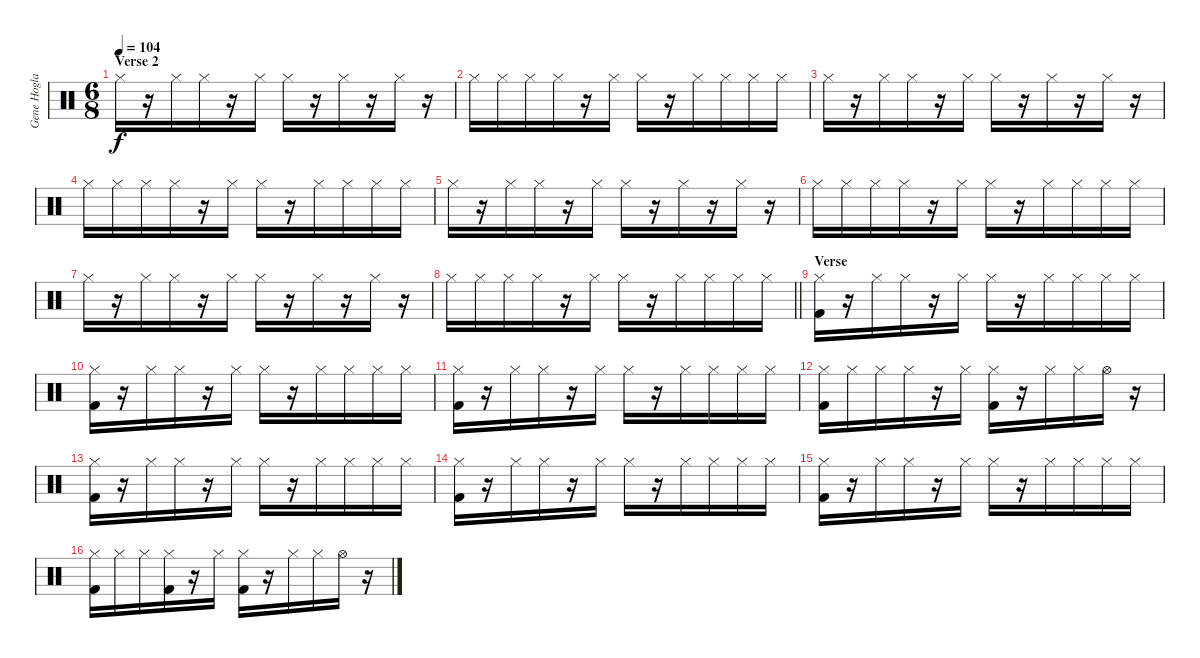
\track ("Gene Hoglan" "Gene Hogla") {instrument percussion}
\staff {score}
\articulation defaults
\ts (6 8)
\section ("" "Verse 2")
\tempo 104
\clef neutral
\ks c "Hi-Hat (closed)".16{dy f}
r.16 "Hi-Hat (closed)".16 "Hi-Hat (closed)".16 r.16 "Hi-Hat (closed)".16 "Hi-Hat (closed)".16 r.16 "Hi-Hat (closed)".16 r.16 "Hi-Hat (closed)".16 r.16 |
"Hi-Hat (closed)".16 "Hi-Hat (closed)".16 "Hi-Hat (closed)".16 "Hi-Hat (closed)".16 r.16 "Hi-Hat (closed)".16 "Hi-Hat (closed)".16 r.16 "Hi-Hat (closed)".16 "Hi-Hat (closed)".16 "Hi-Hat (closed)".16 "Hi-Hat (closed)".16 |
"Hi-Hat (closed)".16 r.16 "Hi-Hat (closed)".16 "Hi-Hat (closed)".16 r.16 "Hi-Hat (closed)".16 "Hi-Hat (closed)".16 r.16 "Hi-Hat (closed)".16 r.16 "Hi-Hat (closed)".16 r.16 |
"Hi-Hat (closed)".16 "Hi-Hat (closed)".16 "Hi-Hat (closed)".16 "Hi-Hat (closed)".16 r.16 "Hi-Hat (closed)".16 "Hi-Hat (closed)".16 r.16 "Hi-Hat (closed)".16 "Hi-Hat (closed)".16 "Hi-Hat (closed)".16 "Hi-Hat (closed)".16 |
"Hi-Hat (closed)".16 r.16 "Hi-Hat (closed)".16 "Hi-Hat (closed)".16 r.16 "Hi-Hat (closed)".16 "Hi-Hat (closed)".16 r.16 "Hi-Hat (closed)".16 r.16 "Hi-Hat (closed)".16 r.16 |
"Hi-Hat (closed)".16 "Hi-Hat (closed)".16 "Hi-Hat (closed)".16 "Hi-Hat (closed)".16 r.16 "Hi-Hat (closed)".16 "Hi-Hat (closed)".16 r.16 "Hi-Hat (closed)".16 "Hi-Hat (closed)".16 "Hi-Hat (closed)".16 "Hi-Hat (closed)".16 |
"Hi-Hat (closed)".16 r.16 "Hi-Hat (closed)".16 "Hi-Hat (closed)".16 r.16 "Hi-Hat (closed)".16 "Hi-Hat (closed)".16 r.16 "Hi-Hat (closed)".16 r.16 "Hi-Hat (closed)".16 r.16 |
\barLineRight lightlight "Hi-Hat (closed)".16 "Hi-Hat (closed)".16 "Hi-Hat (closed)".16 "Hi-Hat (closed)".16
r.16 "Hi-Hat (closed)".16 "Hi-Hat (closed)".16 r.16 "Hi-Hat (closed)".16 "Hi-Hat (closed)".16 "Hi-Hat (closed)".16 "Hi-Hat (closed)".16 |
\section ("" "Verse")
("Hi-Hat (closed)" "Kick (hit) 2").16 r.16 "Hi-Hat (closed)".16 "Hi-Hat (closed)".16 r.16 "Hi-Hat (closed)".16 "Hi-Hat (closed)".16 r.16 "Hi-Hat (closed)".16 "Hi-Hat (closed)".16 "Hi-Hat (closed)".16 "Hi-Hat (closed)".16 |
("Hi-Hat (closed)" "Kick (hit) 2").16 r.16 "Hi-Hat (closed)".16 "Hi-Hat (closed)".16 r.16 "Hi-Hat (closed)".16 "Hi-Hat (closed)".16 r.16 "Hi-Hat (closed)".16 "Hi-Hat (closed)".16 "Hi-Hat (closed)".16 "Hi-Hat (closed)".16 |
("Hi-Hat (closed)" "Kick (hit) 2").16 r.16 "Hi-Hat (closed)".16 "Hi-Hat (closed)".16 r.16 "Hi-Hat (closed)".16 "Hi-Hat (closed)".16 r.16 "Hi-Hat (closed)".16 "Hi-Hat (closed)".16 "Hi-Hat (closed)".16 "Hi-Hat (closed)".16 |
("Hi-Hat (closed)" "Kick (hit) 2").16 "Hi-Hat (closed)".16 "Hi-Hat (closed)".16 "Hi-Hat (closed)".16 r.16 "Hi-Hat (closed)".16 ("Hi-Hat (closed)" "Kick (hit) 2").16 r.16 "Hi-Hat (closed)".16 "Hi-Hat (closed)".16 "Hi-Hat (open)".16 r.16 |
("Hi-Hat (closed)" "Kick (hit) 2").16 r.16 "Hi-Hat (closed)".16 "Hi-Hat (closed)".16 r.16 "Hi-Hat (closed)".16 "Hi-Hat (closed)".16 r.16 "Hi-Hat (closed)".16 "Hi-Hat (closed)".16 "Hi-Hat (closed)".16 "Hi-Hat (closed)".16 |
("Hi-Hat (closed)" "Kick (hit) 2").16 r.16 "Hi-Hat (closed)".16 "Hi-Hat (closed)".16 r.16 "Hi-Hat (closed)".16 "Hi-Hat (closed)".16 r.16 "Hi-Hat (closed)".16 "Hi-Hat (closed)".16 "Hi-Hat (closed)".16 "Hi-Hat (closed)".16 |
("Hi-Hat (closed)" "Kick (hit) 2").16 r.16 "Hi-Hat (closed)".16 "Hi-Hat (closed)".16 r.16 "Hi-Hat (closed)".16 "Hi-Hat (closed)".16 r.16 "Hi-Hat (closed)".16 "Hi-Hat (closed)".16 "Hi-Hat (closed)".16 "Hi-Hat (closed)".16 |
("Hi-Hat (closed)" "Kick (hit) 2").16 "Hi-Hat (closed)".16 "Hi-Hat (closed)".16 ("Hi-Hat (closed)" "Kick (hit) 2").16 r.16 "Hi-Hat (closed)".16 ("Hi-Hat (closed)" "Kick (hit) 2").16 r.16 "Hi-Hat (closed)".16 "Hi-Hat (closed)".16 "Hi-Hat (open)".16 r.16
